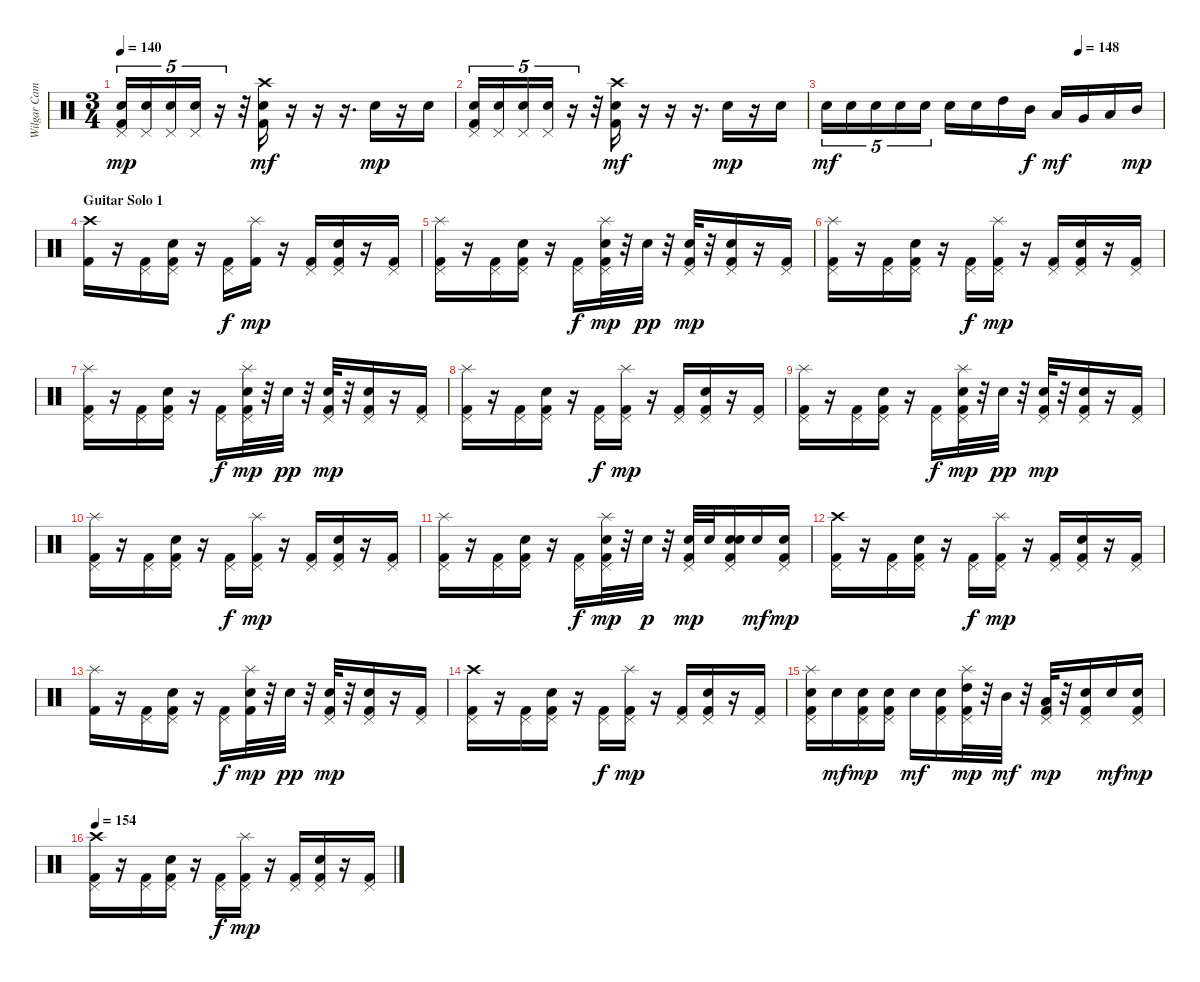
\track ("Wilgar Campbell" "Wilgar Cam") {instrument percussion}
\staff {score}
\articulation defaults
\ts (3 4)
\tempo 140
\clef neutral
\ks c
("Snare (hit) 2" "Pedal Hi-Hat (hit)" "Kick (hit) 2").16{tu (5 4) dy mp} ("Snare (hit) 2" "Pedal Hi-Hat (hit)").16{tu (5 4)} ("Snare (hit) 2" "Pedal Hi-Hat (hit)").16{tu (5 4)} ("Snare (hit) 2" "Pedal Hi-Hat (hit)").16{tu (5 4)} r.16{tu (5 4)} r.32 ("Crash high (hit)" "Snare (hit) 2" "Kick (hit) 2").16{dy mf} r.16 r.16 r.16{d} "Electric Snare (hit)".16{dy mp} r.16 "Electric Snare (hit)".16 |
("Snare (hit) 2" "Pedal Hi-Hat (hit)" "Kick (hit) 2").16{tu (5 4)} ("Snare (hit) 2" "Pedal Hi-Hat (hit)").16{tu (5 4)} ("Snare (hit) 2" "Pedal Hi-Hat (hit)").16{tu (5 4)} ("Snare (hit) 2" "Pedal Hi-Hat (hit)").16{tu (5 4)} r.16{tu (5 4)} r.32 ("Crash high (hit)" "Snare (hit) 2" "Kick (hit) 2").16{dy mf} r.16 r.16 r.16{d} "Electric Snare (hit)".16{dy mp} r.16 "Electric Snare (hit)".16 |
\tempo (148 0.75)
"Snare (hit) 2".16{tu (5 4) dy mf} "Snare (hit) 2".16{tu (5 4)} "Snare (hit) 2".16{tu (5 4)} "Snare (hit) 2".16{tu (5 4)} "Snare (hit) 2".16{tu (5 4)} "Snare (hit) 2".16 "Snare (hit) 2".16 "High Tom (hit)".16 "Mid Tom (hit)".16{dy f} "Low Tom (hit)".16{dy mf} "Very Low Tom (hit)".16 "Low Floor Tom (hit)".16 "Mid Tom (hit)".16{dy mp} |
\section ("" "Guitar Solo 1")
("Crash high (hit)" "Kick (hit) 2").16 r.16 ("Pedal Hi-Hat (hit)" "Kick (hit) 2").16 ("Snare (hit) 2" "Pedal Hi-Hat (hit)" "Kick (hit) 2").16 r.16 ("Pedal Hi-Hat (hit)" "Kick (hit) 2").16{dy f} ("Splash (hit)" "Kick (hit) 2").16{dy mp} r.16 ("Pedal Hi-Hat (hit)" "Kick (hit) 2").16 ("Snare (hit) 2" "Pedal Hi-Hat (hit)" "Kick (hit) 2").16 r.16 ("Pedal Hi-Hat (hit)" "Kick (hit) 2").16 |
("Splash (hit)" "Pedal Hi-Hat (hit)" "Kick (hit) 2").16 r.16 ("Pedal Hi-Hat (hit)" "Kick (hit) 2").16 ("Snare (hit) 2" "Pedal Hi-Hat (hit)" "Kick (hit) 2").16 r.16 ("Pedal Hi-Hat (hit)" "Kick (hit) 2").16{dy f} ("Splash (hit)" "Pedal Hi-Hat (hit)" "Electric Snare (hit)" "Kick (hit) 2").32{dy mp} r.32 "Electric Snare (hit)".32{dy pp} r.32 ("Pedal Hi-Hat (hit)" "Electric Snare (hit)" "Kick (hit) 2").32{dy mp} r.32 ("Snare (hit) 2" "Pedal Hi-Hat (hit)" "Kick (hit) 2").16 r.16 ("Pedal Hi-Hat (hit)" "Kick (hit) 2").16 |
("Splash (hit)" "Pedal Hi-Hat (hit)" "Kick (hit) 2").16 r.16 ("Pedal Hi-Hat (hit)" "Kick (hit) 2").16 ("Snare (hit) 2" "Pedal Hi-Hat (hit)" "Kick (hit) 2").16 r.16 ("Pedal Hi-Hat (hit)" "Kick (hit) 2").16{dy f} ("Splash (hit)" "Pedal Hi-Hat (hit)" "Kick (hit) 2").16{dy mp} r.16 ("Pedal Hi-Hat (hit)" "Kick (hit) 2").16 ("Snare (hit) 2" "Pedal Hi-Hat (hit)" "Kick (hit) 2").16 r.16 ("Pedal Hi-Hat (hit)" "Kick (hit) 2").16 |
("Splash (hit)" "Pedal Hi-Hat (hit)" "Kick (hit) 2").16 r.16 ("Pedal Hi-Hat (hit)" "Kick (hit) 2").16 ("Snare (hit) 2" "Pedal Hi-Hat (hit)" "Kick (hit) 2").16 r.16 ("Pedal Hi-Hat (hit)" "Kick (hit) 2").16{dy f} ("Splash (hit)" "Pedal Hi-Hat (hit)" "Electric Snare (hit)" "Kick (hit) 2").32{dy mp} r.32 "Electric Snare (hit)".32{dy pp} r.32 ("Pedal Hi-Hat (hit)" "Electric Snare (hit)" "Kick (hit) 2").32{dy mp} r.32 ("Snare (hit) 2" "Pedal Hi-Hat (hit)" "Kick (hit) 2").16 r.16 ("Pedal Hi-Hat (hit)" "Kick (hit) 2").16 |
("Splash (hit)" "Pedal Hi-Hat (hit)" "Kick (hit) 2").16 r.16 ("Pedal Hi-Hat (hit)" "Kick (hit) 2").16 ("Snare (hit) 2" "Pedal Hi-Hat (hit)" "Kick (hit) 2").16 r.16 ("Pedal Hi-Hat (hit)" "Kick (hit) 2").16{dy f} ("Splash (hit)" "Pedal Hi-Hat (hit)" "Kick (hit) 2").16{dy mp} r.16 ("Pedal Hi-Hat (hit)" "Kick (hit) 2").16 ("Snare (hit) 2" "Pedal Hi-Hat (hit)" "Kick (hit) 2").16 r.16 ("Pedal Hi-Hat (hit)" "Kick (hit) 2").16 |
("Splash (hit)" "Pedal Hi-Hat (hit)" "Kick (hit) 2").16 r.16 ("Pedal Hi-Hat (hit)" "Kick (hit) 2").16 ("Snare (hit) 2" "Pedal Hi-Hat (hit)" "Kick (hit) 2").16 r.16 ("Pedal Hi-Hat (hit)" "Kick (hit) 2").16{dy f} ("Splash (hit)" "Pedal Hi-Hat (hit)" "Electric Snare (hit)" "Kick (hit) 2").32{dy mp} r.32 "Electric Snare (hit)".32{dy pp} r.32 ("Pedal Hi-Hat (hit)" "Electric Snare (hit)" "Kick (hit) 2").32{dy mp} r.32 ("Snare (hit) 2" "Pedal Hi-Hat (hit)" "Kick (hit) 2").16 r.16 ("Pedal Hi-Hat (hit)" "Kick (hit) 2").16 |
("Splash (hit)" "Pedal Hi-Hat (hit)" "Kick (hit) 2").16 r.16 ("Pedal Hi-Hat (hit)" "Kick (hit) 2").16 ("Snare (hit) 2" "Pedal Hi-Hat (hit)" "Kick (hit) 2").16 r.16 ("Pedal Hi-Hat (hit)" "Kick (hit) 2").16{dy f} ("Splash (hit)" "Pedal Hi-Hat (hit)" "Kick (hit) 2").16{dy mp} r.16 ("Pedal Hi-Hat (hit)" "Kick (hit) 2").16 ("Snare (hit) 2" "Pedal Hi-Hat (hit)" "Kick (hit) 2").16 r.16 ("Pedal Hi-Hat (hit)" "Kick (hit) 2").16 |
("Splash (hit)" "Pedal Hi-Hat (hit)" "Kick (hit) 2").16 r.16 ("Pedal Hi-Hat (hit)" "Kick (hit) 2").16 ("Snare (hit) 2" "Pedal Hi-Hat (hit)" "Kick (hit) 2").16 r.16 ("Pedal Hi-Hat (hit)" "Kick (hit) 2").16{dy f} ("Splash (hit)" "Pedal Hi-Hat (hit)" "Electric Snare (hit)" "Kick (hit) 2").32{dy mp} r.32 "Electric Snare (hit)".32{dy p} r.32 ("Pedal Hi-Hat (hit)" "Electric Snare (hit)" "Kick (hit) 2").32{dy mp} "Electric Snare (hit)".32 ("Snare (hit) 2" "Pedal Hi-Hat (hit)" "Snare (hit) 2" "Kick (hit) 2").16 "Snare (hit) 2".16{dy mf} ("Pedal Hi-Hat (hit)" "Snare (hit) 2" "Kick (hit) 2").16{dy mp} |
("Crash high (hit)" "Pedal Hi-Hat (hit)" "Kick (hit) 2").16 r.16 ("Pedal Hi-Hat (hit)" "Kick (hit) 2").16 ("Snare (hit) 2" "Pedal Hi-Hat (hit)" "Kick (hit) 2").16 r.16 ("Pedal Hi-Hat (hit)" "Kick (hit) 2").16{dy f} ("Splash (hit)" "Pedal Hi-Hat (hit)" "Kick (hit) 2").16{dy mp} r.16 ("Pedal Hi-Hat (hit)" "Kick (hit) 2").16 ("Snare (hit) 2" "Pedal Hi-Hat (hit)" "Kick (hit) 2").16 r.16 ("Pedal Hi-Hat (hit)" "Kick (hit) 2").16 |
("Splash (hit)" "Kick (hit) 2").16 r.16 ("Pedal Hi-Hat (hit)" "Kick (hit) 2").16 ("Snare (hit) 2" "Pedal Hi-Hat (hit)" "Kick (hit) 2").16 r.16 ("Pedal Hi-Hat (hit)" "Kick (hit) 2").16{dy f} ("Splash (hit)" "Electric Snare (hit)" "Kick (hit) 2").32{dy mp} r.32 "Electric Snare (hit)".32{dy pp} r.32 ("Pedal Hi-Hat (hit)" "Electric Snare (hit)" "Kick (hit) 2").32{dy mp} r.32 ("Snare (hit) 2" "Pedal Hi-Hat (hit)" "Kick (hit) 2").16 r.16 ("Pedal Hi-Hat (hit)" "Kick (hit) 2").16 |
("Crash high (hit)" "Pedal Hi-Hat (hit)" "Kick (hit) 2").16 r.16 ("Pedal Hi-Hat (hit)" "Kick (hit) 2").16 ("Snare (hit) 2" "Pedal Hi-Hat (hit)" "Kick (hit) 2").16 r.16 ("Pedal Hi-Hat (hit)" "Kick (hit) 2").16{dy f} ("Splash (hit)" "Pedal Hi-Hat (hit)" "Kick (hit) 2").16{dy mp} r.16 ("Pedal Hi-Hat (hit)" "Kick (hit) 2").16 ("Snare (hit) 2" "Pedal Hi-Hat (hit)" "Kick (hit) 2").16 r.16 ("Pedal Hi-Hat (hit)" "Kick (hit) 2").16 |
("Splash (hit)" "Pedal Hi-Hat (hit)" "Snare (hit) 2" "Kick (hit) 2").16 "Snare (hit) 2".16{dy mf} ("Pedal Hi-Hat (hit)" "Snare (hit) 2" "Kick (hit) 2").16{dy mp} ("Pedal Hi-Hat (hit)" "Snare (hit) 2" "Kick (hit) 2").16 "Snare (hit) 2".16{dy mf} ("Pedal Hi-Hat (hit)" "Snare (hit) 2" "Kick (hit) 2").16 ("Splash (hit)" "Pedal Hi-Hat (hit)" "High Tom (hit)" "Kick (hit) 2").32{dy mp} r.32 "Mid Tom (hit)".32{dy mf} r.32 ("Pedal Hi-Hat (hit)" "Low Tom (hit)" "Kick (hit) 2").32{dy mp} r.32 ("Pedal Hi-Hat (hit)" "Snare (hit) 2" "Kick (hit) 2").16 "Snare (hit) 2".16{dy mf} ("Pedal Hi-Hat (hit)" "Snare (hit) 2" "Kick (hit) 2").16{dy mp} |
\tempo 154
("Crash high (hit)" "Pedal Hi-Hat (hit)" "Kick (hit) 2").16 r.16 ("Pedal Hi-Hat (hit)" "Kick (hit) 2").16 ("Snare (hit) 2" "Pedal Hi-Hat (hit)" "Kick (hit) 2").16 r.16 ("Pedal Hi-Hat (hit)" "Kick (hit) 2").16{dy f} ("Splash (hit)" "Pedal Hi-Hat (hit)" "Kick (hit) 2").16{dy mp} r.16 ("Pedal Hi-Hat (hit)" "Kick (hit) 2").16 ("Snare (hit) 2" "Pedal Hi-Hat (hit)" "Kick (hit) 2").16 r.16 ("Pedal Hi-Hat (hit)" "Kick (hit) 2").16
